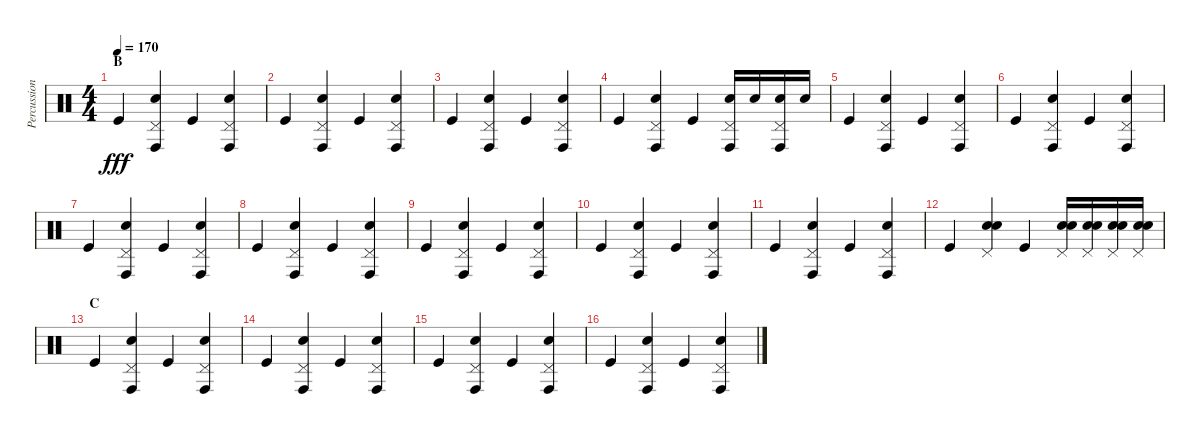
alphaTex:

\track ("Percussion" "Percussion") {instrument percussion}
\staff {score}
\articulation defaults
\ts (4 4)
\section ("" "B")
\tempo 170
\clef neutral
\ks c "Kick (hit)".4{dy fff}
("Pedal Hi-Hat (hit)" "Conga high (hit)" "Electric Snare (hit)").4 "Kick (hit)".4 ("Pedal Hi-Hat (hit)" "Conga high (hit)" "Electric Snare (hit)").4 |
"Kick (hit)".4 ("Pedal Hi-Hat (hit)" "Conga high (hit)" "Electric Snare (hit)").4 "Kick (hit)".4 ("Pedal Hi-Hat (hit)" "Conga high (hit)" "Electric Snare (hit)").4 |
"Kick (hit)".4 ("Pedal Hi-Hat (hit)" "Conga high (hit)" "Electric Snare (hit)").4 "Kick (hit)".4 ("Pedal Hi-Hat (hit)" "Conga high (hit)" "Electric Snare (hit)").4 |
"Kick (hit)".4 ("Pedal Hi-Hat (hit)" "Conga high (hit)" "Electric Snare (hit)").4 "Kick (hit)".4 ("Pedal Hi-Hat (hit)" "Conga high (hit)" "Electric Snare (hit)").16 "Electric Snare (hit)".16 ("Pedal Hi-Hat (hit)" "Conga high (hit)" "Electric Snare (hit)").16 "Electric Snare (hit)".16 |
"Kick (hit)".4 ("Pedal Hi-Hat (hit)" "Conga high (hit)" "Electric Snare (hit)").4 "Kick (hit)".4 ("Pedal Hi-Hat (hit)" "Conga high (hit)" "Electric Snare (hit)").4 |
"Kick (hit)".4 ("Pedal Hi-Hat (hit)" "Conga high (hit)" "Electric Snare (hit)").4 "Kick (hit)".4 ("Pedal Hi-Hat (hit)" "Conga high (hit)" "Electric Snare (hit)").4 |
"Kick (hit)".4 ("Pedal Hi-Hat (hit)" "Conga high (hit)" "Electric Snare (hit)").4 "Kick (hit)".4 ("Pedal Hi-Hat (hit)" "Conga high (hit)" "Electric Snare (hit)").4 |
"Kick (hit)".4 ("Pedal Hi-Hat (hit)" "Conga high (hit)" "Electric Snare (hit)").4 "Kick (hit)".4 ("Pedal Hi-Hat (hit)" "Conga high (hit)" "Electric Snare (hit)").4 |
"Kick (hit)".4 ("Pedal Hi-Hat (hit)" "Conga high (hit)" "Electric Snare (hit)").4 "Kick (hit)".4 ("Pedal Hi-Hat (hit)" "Conga high (hit)" "Electric Snare (hit)").4 |
"Kick (hit)".4 ("Pedal Hi-Hat (hit)" "Conga high (hit)" "Electric Snare (hit)").4 "Kick (hit)".4 ("Pedal Hi-Hat (hit)" "Conga high (hit)" "Electric Snare (hit)").4 |
"Kick (hit)".4 ("Pedal Hi-Hat (hit)" "Conga high (hit)" "Electric Snare (hit)").4 "Kick (hit)".4 ("Pedal Hi-Hat (hit)" "Conga high (hit)" "Electric Snare (hit)").4 |
"Kick (hit)".4 ("Pedal Hi-Hat (hit)" "Snare (hit) 2" "Electric Snare (hit)").4 "Kick (hit)".4 ("Pedal Hi-Hat (hit)" "Snare (hit) 2" "Electric Snare (hit)").16 ("Pedal Hi-Hat (hit)" "Snare (hit) 2" "Electric Snare (hit)").16 ("Pedal Hi-Hat (hit)" "Snare (hit) 2" "Electric Snare (hit)").16 ("Pedal Hi-Hat (hit)" "Snare (hit) 2" "Electric Snare (hit)").16 |
\section ("" "C")
"Kick (hit)".4 ("Pedal Hi-Hat (hit)" "Conga high (hit)" "Electric Snare (hit)").4 "Kick (hit)".4 ("Pedal Hi-Hat (hit)" "Conga high (hit)" "Electric Snare (hit)").4 |
"Kick (hit)".4 ("Pedal Hi-Hat (hit)" "Conga high (hit)" "Electric Snare (hit)").4 "Kick (hit)".4 ("Pedal Hi-Hat (hit)" "Conga high (hit)" "Electric Snare (hit)").4 |
"Kick (hit)".4 ("Pedal Hi-Hat (hit)" "Conga high (hit)" "Electric Snare (hit)").4 "Kick (hit)".4 ("Pedal Hi-Hat (hit)" "Conga high (hit)" "Electric Snare (hit)").4 |
"Kick (hit)".4 ("Pedal Hi-Hat (hit)" "Conga high (hit)" "Electric Snare (hit)").4 "Kick (hit)".4 ("Pedal Hi-Hat (hit)" "Conga high (hit)" "Electric Snare (hit)").4
